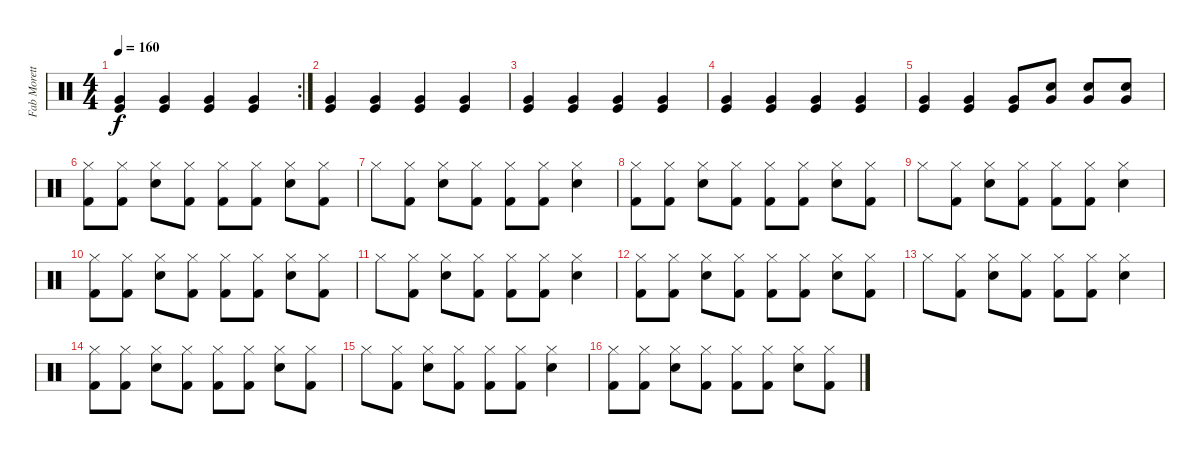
\track ("Fab Moretti " "Fab Morett") {instrument percussion}
\staff {score}
\articulation defaults
\rc 2
\ts (4 4)
\tempo 160
\clef neutral
\ks c
("Very Low Tom (hit)" "Kick (hit)").4{dy f} ("Very Low Tom (hit)" "Kick (hit)").4 ("Very Low Tom (hit)" "Kick (hit)").4 ("Very Low Tom (hit)" "Kick (hit)").4 |
("Very Low Tom (hit)" "Kick (hit)").4 ("Very Low Tom (hit)" "Kick (hit)").4 ("Very Low Tom (hit)" "Kick (hit)").4 ("Very Low Tom (hit)" "Kick (hit)").4 |
("Very Low Tom (hit)" "Kick (hit)").4 ("Very Low Tom (hit)" "Kick (hit)").4 ("Very Low Tom (hit)" "Kick (hit)").4 ("Very Low Tom (hit)" "Kick (hit)").4 |
("Very Low Tom (hit)" "Kick (hit)").4 ("Very Low Tom (hit)" "Kick (hit)").4 ("Very Low Tom (hit)" "Kick (hit)").4 ("Very Low Tom (hit)" "Kick (hit)").4 |
("Very Low Tom (hit)" "Kick (hit)").4 ("Very Low Tom (hit)" "Kick (hit)").4 ("Very Low Tom (hit)" "Kick (hit)").8 ("Electric Snare (hit)" "Very Low Tom (hit)").8 ("Electric Snare (hit)" "Very Low Tom (hit)").8 ("Electric Snare (hit)" "Very Low Tom (hit)").8 |
("Kick (hit) 2" "Hi-Hat (closed)").8 ("Kick (hit) 2" "Hi-Hat (closed)").8 ("Electric Snare (hit)" "Hi-Hat (closed)").8 ("Kick (hit) 2" "Hi-Hat (closed)").8 ("Kick (hit) 2" "Hi-Hat (closed)").8 ("Kick (hit) 2" "Hi-Hat (closed)").8 ("Electric Snare (hit)" "Hi-Hat (closed)").8 ("Kick (hit) 2" "Hi-Hat (closed)").8 |
"Hi-Hat (closed)".8 ("Kick (hit) 2" "Hi-Hat (closed)").8 ("Electric Snare (hit)" "Hi-Hat (closed)").8 ("Kick (hit) 2" "Hi-Hat (closed)").8 ("Kick (hit) 2" "Hi-Hat (closed)").8 ("Kick (hit) 2" "Hi-Hat (closed)").8 ("Electric Snare (hit)" "Hi-Hat (closed)").4 |
("Kick (hit) 2" "Hi-Hat (closed)").8 ("Kick (hit) 2" "Hi-Hat (closed)").8 ("Electric Snare (hit)" "Hi-Hat (closed)").8 ("Kick (hit) 2" "Hi-Hat (closed)").8 ("Kick (hit) 2" "Hi-Hat (closed)").8 ("Kick (hit) 2" "Hi-Hat (closed)").8 ("Electric Snare (hit)" "Hi-Hat (closed)").8 ("Kick (hit) 2" "Hi-Hat (closed)").8 |
"Hi-Hat (closed)".8 ("Kick (hit) 2" "Hi-Hat (closed)").8 ("Electric Snare (hit)" "Hi-Hat (closed)").8 ("Kick (hit) 2" "Hi-Hat (closed)").8 ("Kick (hit) 2" "Hi-Hat (closed)").8 ("Kick (hit) 2" "Hi-Hat (closed)").8 ("Electric Snare (hit)" "Hi-Hat (closed)").4 |
("Kick (hit) 2" "Hi-Hat (closed)").8 ("Kick (hit) 2" "Hi-Hat (closed)").8 ("Electric Snare (hit)" "Hi-Hat (closed)").8 ("Kick (hit) 2" "Hi-Hat (closed)").8 ("Kick (hit) 2" "Hi-Hat (closed)").8 ("Kick (hit) 2" "Hi-Hat (closed)").8 ("Electric Snare (hit)" "Hi-Hat (closed)").8 ("Kick (hit) 2" "Hi-Hat (closed)").8 |
"Hi-Hat (closed)".8 ("Kick (hit) 2" "Hi-Hat (closed)").8 ("Electric Snare (hit)" "Hi-Hat (closed)").8 ("Kick (hit) 2" "Hi-Hat (closed)").8 ("Kick (hit) 2" "Hi-Hat (closed)").8 ("Kick (hit) 2" "Hi-Hat (closed)").8 ("Electric Snare (hit)" "Hi-Hat (closed)").4 |
("Kick (hit) 2" "Hi-Hat (closed)").8 ("Kick (hit) 2" "Hi-Hat (closed)").8 ("Electric Snare (hit)" "Hi-Hat (closed)").8 ("Kick (hit) 2" "Hi-Hat (closed)").8 ("Kick (hit) 2" "Hi-Hat (closed)").8 ("Kick (hit) 2" "Hi-Hat (closed)").8 ("Electric Snare (hit)" "Hi-Hat (closed)").8 ("Kick (hit) 2" "Hi-Hat (closed)").8 |
"Hi-Hat (closed)".8 ("Kick (hit) 2" "Hi-Hat (closed)").8 ("Electric Snare (hit)" "Hi-Hat (closed)").8 ("Kick (hit) 2" "Hi-Hat (closed)").8 ("Kick (hit) 2" "Hi-Hat (closed)").8 ("Kick (hit) 2" "Hi-Hat (closed)").8 ("Electric Snare (hit)" "Hi-Hat (closed)").4 |
("Kick (hit) 2" "Hi-Hat (closed)").8 ("Kick (hit) 2" "Hi-Hat (closed)").8 ("Electric Snare (hit)" "Hi-Hat (closed)").8 ("Kick (hit) 2" "Hi-Hat (closed)").8 ("Kick (hit) 2" "Hi-Hat (closed)").8 ("Kick (hit) 2" "Hi-Hat (closed)").8 ("Electric Snare (hit)" "Hi-Hat (closed)").8 ("Kick (hit) 2" "Hi-Hat (closed)").8 |
"Hi-Hat (closed)".8 ("Kick (hit) 2" "Hi-Hat (closed)").8 ("Electric Snare (hit)" "Hi-Hat (closed)").8 ("Kick (hit) 2" "Hi-Hat (closed)").8 ("Kick (hit) 2" "Hi-Hat (closed)").8 ("Kick (hit) 2" "Hi-Hat (closed)").8 ("Electric Snare (hit)" "Hi-Hat (closed)").4 |
("Kick (hit) 2" "Hi-Hat (closed)").8 ("Kick (hit) 2" "Hi-Hat (closed)").8 ("Electric Snare (hit)" "Hi-Hat (closed)").8 ("Kick (hit) 2" "Hi-Hat (closed)").8 ("Kick (hit) 2" "Hi-Hat (closed)").8 ("Kick (hit) 2" "Hi-Hat (closed)").8 ("Electric Snare (hit)" "Hi-Hat (closed)").8 ("Kick (hit) 2" "Hi-Hat (closed)").8
